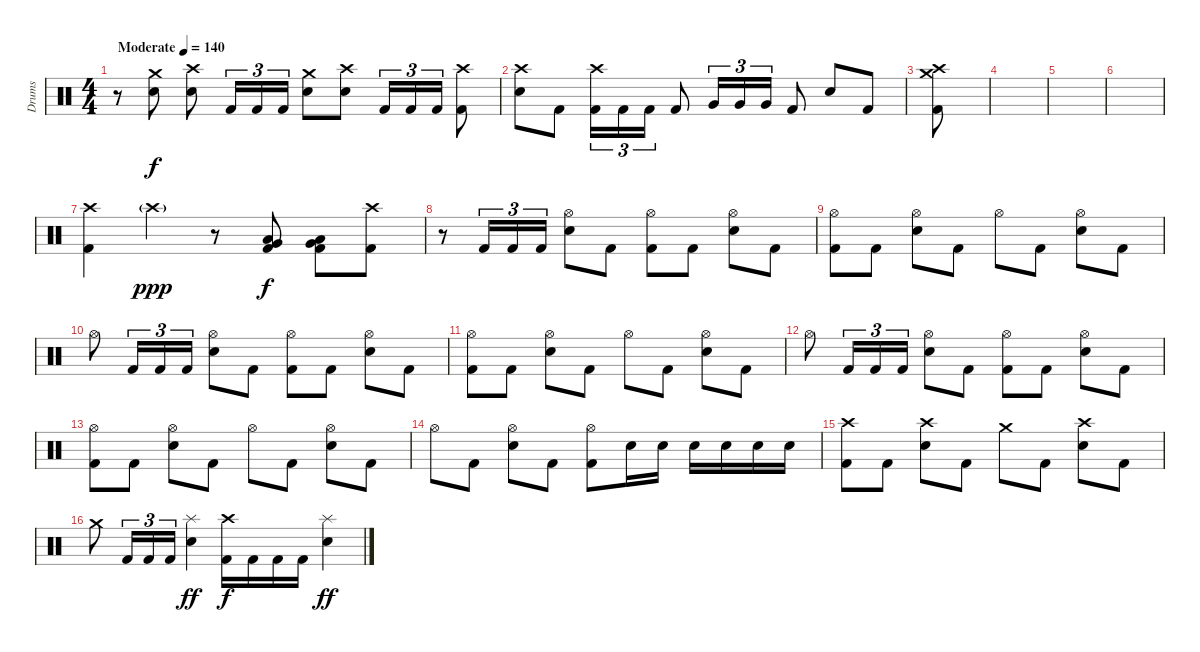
\track ("Drums" "Drums") {instrument percussion}
\staff {score}
\articulation defaults
\ts (4 4)
\tempo (140 "Moderate")
\clef neutral
\ks c
r.8{dy f} ("Crash medium (hit)" "Electric Snare (hit)").8 ("Crash high (hit)" "Electric Snare (hit)").8 "Kick (hit) 2".16{tu (3 2)} "Kick (hit) 2".16{tu (3 2)} "Kick (hit) 2".16{tu (3 2)} ("Crash medium (hit)" "Electric Snare (hit)").8 ("Crash high (hit)" "Electric Snare (hit)").8 "Kick (hit) 2".16{tu (3 2)} "Kick (hit) 2".16{tu (3 2)} "Kick (hit) 2".16{tu (3 2)} ("Crash high (hit)" "Kick (hit) 2").8 |
("Crash high (hit)" "Electric Snare (hit)").8 "Kick (hit) 2".8 ("Crash high (hit)" "Kick (hit) 2").16{tu (3 2)} "Kick (hit) 2".16{tu (3 2)} "Kick (hit) 2".16{tu (3 2)} "Kick (hit) 2".8 "Very Low Tom (hit)".16{tu (3 2)} "Very Low Tom (hit)".16{tu (3 2)} "Very Low Tom (hit)".16{tu (3 2)} "Kick (hit) 2".8 "Electric Snare (hit)".8 "Kick (hit) 2".8 |
("Crash high (hit)" "Crash medium (hit)" "Kick (hit) 2").8 |
|
|
|
("Crash high (hit)" "Kick (hit) 2").4 "Crash high (hit)"{g}.4{dy ppp} r.8 ("Low Floor Tom (hit)" "Very Low Tom (hit)" "Kick (hit) 2").8{dy f} ("Low Floor Tom (hit)" "Very Low Tom (hit)" "Kick (hit) 2").8 ("Crash high (hit)" "Kick (hit) 2").8 |
r.8 "Kick (hit) 2".16{tu (3 2)} "Kick (hit) 2".16{tu (3 2)} "Kick (hit) 2".16{tu (3 2)} ("Hi-Hat (open)" "Electric Snare (hit)").8 "Kick (hit) 2".8 ("Hi-Hat (open)" "Kick (hit) 2").8 "Kick (hit) 2".8 ("Hi-Hat (open)" "Electric Snare (hit)").8 "Kick (hit) 2".8 |
("Hi-Hat (open)" "Kick (hit) 2").8 "Kick (hit) 2".8 ("Hi-Hat (open)" "Electric Snare (hit)").8 "Kick (hit) 2".8 "Hi-Hat (open)".8 "Kick (hit) 2".8 ("Hi-Hat (open)" "Electric Snare (hit)").8 "Kick (hit) 2".8 |
"Hi-Hat (open)".8 "Kick (hit) 2".16{tu (3 2)} "Kick (hit) 2".16{tu (3 2)} "Kick (hit) 2".16{tu (3 2)} ("Hi-Hat (open)" "Electric Snare (hit)").8 "Kick (hit) 2".8 ("Hi-Hat (open)" "Kick (hit) 2").8 "Kick (hit) 2".8 ("Hi-Hat (open)" "Electric Snare (hit)").8 "Kick (hit) 2".8 |
("Hi-Hat (open)" "Kick (hit) 2").8 "Kick (hit) 2".8 ("Hi-Hat (open)" "Electric Snare (hit)").8 "Kick (hit) 2".8 "Hi-Hat (open)".8 "Kick (hit) 2".8 ("Hi-Hat (open)" "Electric Snare (hit)").8 "Kick (hit) 2".8 |
"Hi-Hat (open)".8 "Kick (hit) 2".16{tu (3 2)} "Kick (hit) 2".16{tu (3 2)} "Kick (hit) 2".16{tu (3 2)} ("Hi-Hat (open)" "Electric Snare (hit)").8 "Kick (hit) 2".8 ("Hi-Hat (open)" "Kick (hit) 2").8 "Kick (hit) 2".8 ("Hi-Hat (open)" "Electric Snare (hit)").8 "Kick (hit) 2".8 |
("Hi-Hat (open)" "Kick (hit) 2").8 "Kick (hit) 2".8 ("Hi-Hat (open)" "Electric Snare (hit)").8 "Kick (hit) 2".8 "Hi-Hat (open)".8 "Kick (hit) 2".8 ("Hi-Hat (open)" "Electric Snare (hit)").8 "Kick (hit) 2".8 |
"Hi-Hat (open)".8 "Kick (hit) 2".8 ("Hi-Hat (open)" "Electric Snare (hit)").8 "Kick (hit) 2".8 ("Hi-Hat (open)" "Kick (hit) 2").8 "Electric Snare (hit)".16 "Electric Snare (hit)".16 "Electric Snare (hit)".16 "Electric Snare (hit)".16 "Electric Snare (hit)".16 "Electric Snare (hit)".16 |
("Crash high (hit)" "Kick (hit) 2").8 "Kick (hit) 2".8 ("Crash high (hit)" "Electric Snare (hit)").8 "Kick (hit) 2".8 "Crash medium (hit)".8 "Kick (hit) 2".8 ("Crash high (hit)" "Electric Snare (hit)").8 "Kick (hit) 2".8 |
"Crash medium (hit)".8 "Kick (hit) 2".16{tu (3 2)} "Kick (hit) 2".16{tu (3 2)} "Kick (hit) 2".16{tu (3 2)} ("Splash (hit)" "Electric Snare (hit)").4{dy ff} ("Crash high (hit)" "Kick (hit) 2").16{dy f} "Kick (hit) 2".16 "Kick (hit) 2".16 "Kick (hit) 2".16 ("Splash (hit)" "Electric Snare (hit)").4{dy ff}
